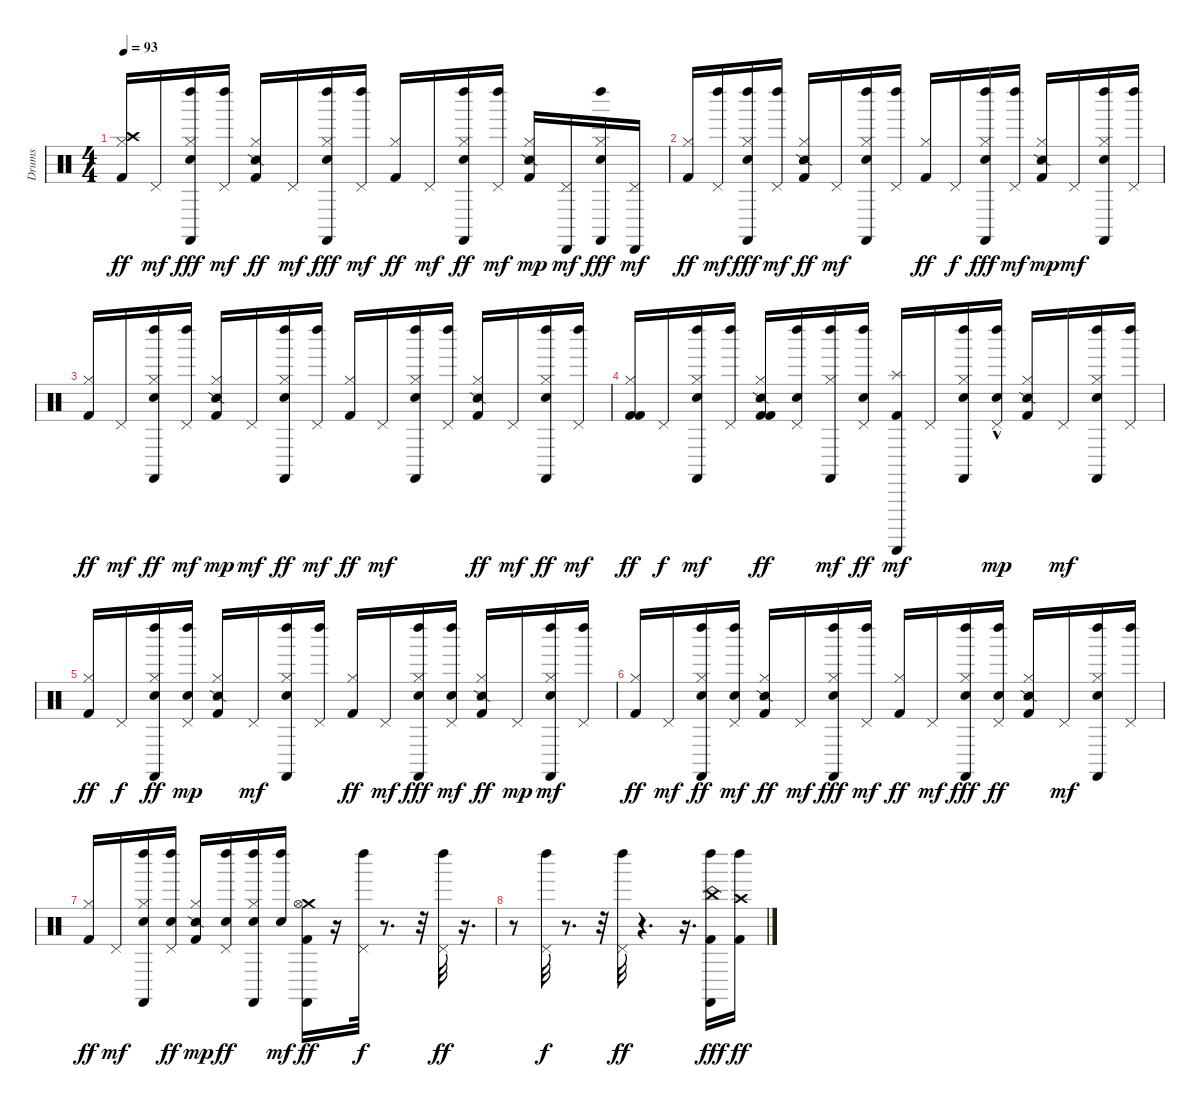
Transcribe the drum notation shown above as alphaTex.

\track ("Drums" "Drums") {instrument percussion}
\staff {score}
\articulation defaults
\ts (4 4)
\tempo 93
\clef neutral
\ks c
("Crash high (hit)" "Hi-Hat (closed)" "Kick (hit) 2").16{dy ff} "Pedal Hi-Hat (hit)".16{dy mf} ("Left Maraca (hit)" "Hi-Hat (closed)" "Snare (hit) 2" "Castanets (hit)").16{dy fff} ("Pedal Hi-Hat (hit)" "Left Maraca (hit)").16{dy mf} ("Hi-Hat (closed)" "Snare (side stick) 2" "Kick (hit) 2").16{dy ff} "Pedal Hi-Hat (hit)".16{dy mf} ("Snare (hit) 2" "Hi-Hat (closed)" "Left Maraca (hit)" "Castanets (hit)").16{dy fff} ("Left Maraca (hit)" "Pedal Hi-Hat (hit)").16{dy mf} ("Kick (hit) 2" "Hi-Hat (closed)").16{dy ff} "Pedal Hi-Hat (hit)".16{dy mf} ("Snare (hit) 2" "Left Maraca (hit)" "Castanets (hit)" "Hi-Hat (closed)").16{dy ff} ("Pedal Hi-Hat (hit)" "Left Maraca (hit)").16{dy mf} ("Kick (hit) 2" "Hi-Hat (closed)" "Snare (side stick) 2").16{dy mp} ("Pedal Hi-Hat (hit)" "Cabasa (hit)").16{dy mf} ("Hi-Hat (closed)" "Snare (hit) 2" "Left Maraca (hit)" "Castanets (hit)").16{dy fff} ("Cabasa (hit)" "Pedal Hi-Hat (hit)").16{dy mf} |
("Hi-Hat (closed)" "Kick (hit) 2").16{dy ff} ("Pedal Hi-Hat (hit)" "Left Maraca (hit)").16{dy mf} ("Left Maraca (hit)" "Hi-Hat (closed)" "Snare (hit) 2" "Castanets (hit)").16{dy fff} ("Pedal Hi-Hat (hit)" "Left Maraca (hit)").16{dy mf} ("Kick (hit) 2" "Snare (side stick) 2" "Hi-Hat (closed)").16{dy ff} "Pedal Hi-Hat (hit)".16{dy mf} ("Castanets (hit)" "Snare (hit) 2" "Hi-Hat (closed)" "Left Maraca (hit)").16 ("Pedal Hi-Hat (hit)" "Left Maraca (hit)").16 ("Kick (hit) 2" "Hi-Hat (closed)").16{dy ff} "Pedal Hi-Hat (hit)".16{dy f} ("Snare (hit) 2" "Left Maraca (hit)" "Hi-Hat (closed)" "Castanets (hit)").16{dy fff} ("Left Maraca (hit)" "Pedal Hi-Hat (hit)").16{dy mf} ("Kick (hit) 2" "Snare (side stick) 2" "Hi-Hat (closed)").16{dy mp} "Pedal Hi-Hat (hit)".16{dy mf} ("Castanets (hit)" "Snare (hit) 2" "Left Maraca (hit)" "Hi-Hat (closed)").16 ("Pedal Hi-Hat (hit)" "Left Maraca (hit)").16 |
("Hi-Hat (closed)" "Kick (hit) 2").16{dy ff} "Pedal Hi-Hat (hit)".16{dy mf} ("Hi-Hat (closed)" "Castanets (hit)" "Left Maraca (hit)" "Snare (hit) 2").16{dy ff} ("Pedal Hi-Hat (hit)" "Left Maraca (hit)").16{dy mf} ("Kick (hit) 2" "Snare (side stick) 2" "Hi-Hat (closed)").16{dy mp} "Pedal Hi-Hat (hit)".16{dy mf} ("Hi-Hat (closed)" "Left Maraca (hit)" "Castanets (hit)" "Snare (hit) 2").16{dy ff} ("Pedal Hi-Hat (hit)" "Left Maraca (hit)").16{dy mf} ("Kick (hit) 2" "Hi-Hat (closed)").16{dy ff} "Pedal Hi-Hat (hit)".16{dy mf} ("Hi-Hat (closed)" "Castanets (hit)" "Snare (hit) 2" "Left Maraca (hit)").16 ("Pedal Hi-Hat (hit)" "Left Maraca (hit)").16 ("Hi-Hat (closed)" "Snare (side stick) 2" "Kick (hit) 2").16{dy ff} "Pedal Hi-Hat (hit)".16{dy mf} ("Castanets (hit)" "Left Maraca (hit)" "Hi-Hat (closed)" "Snare (hit) 2").16{dy ff} ("Pedal Hi-Hat (hit)" "Left Maraca (hit)").16{dy mf} |
("Kick (hit) 2" "Hi-Hat (closed)" "Kick (hit) 2").16{dy ff} "Pedal Hi-Hat (hit)".16{dy f} ("Castanets (hit)" "Hi-Hat (closed)" "Snare (hit) 2" "Left Maraca (hit)").16{dy mf} ("Left Maraca (hit)" "Pedal Hi-Hat (hit)").16 ("Snare (side stick) 2" "Kick (hit) 2" "Hi-Hat (closed)" "Kick (hit) 2").16{dy ff} ("Left Maraca (hit)" "Snare (hit) 2" "Pedal Hi-Hat (hit)").16 ("Left Maraca (hit)" "Castanets (hit)" "Hi-Hat (closed)").16{dy mf} ("Snare (hit) 2" "Left Maraca (hit)" "Pedal Hi-Hat (hit)").16{dy ff} ("Splash (hit)" "Kick (hit) 2" "Guiro (scrap-return)").16{dy mf} "Pedal Hi-Hat (hit)".16 ("Castanets (hit)" "Hi-Hat (closed)" "Snare (hit) 2" "Left Maraca (hit)").16 ("Left Maraca (hit)" "Snare (hit) 2"{hac} "Pedal Hi-Hat (hit)").16{dy mp} ("Kick (hit) 2" "Snare (side stick) 2" "Hi-Hat (closed)").16 "Pedal Hi-Hat (hit)".16{dy mf} ("Snare (hit) 2" "Castanets (hit)" "Hi-Hat (closed)" "Left Maraca (hit)").16 ("Pedal Hi-Hat (hit)" "Left Maraca (hit)").16 |
("Kick (hit) 2" "Hi-Hat (closed)").16{dy ff} "Pedal Hi-Hat (hit)".16{dy f} ("Left Maraca (hit)" "Snare (hit) 2" "Castanets (hit)" "Hi-Hat (closed)").16{dy ff} ("Snare (hit) 2" "Left Maraca (hit)" "Pedal Hi-Hat (hit)").16{dy mp} ("Hi-Hat (closed)" "Kick (hit) 2" "Snare (side stick) 2").16 "Pedal Hi-Hat (hit)".16{dy mf} ("Snare (hit) 2" "Castanets (hit)" "Hi-Hat (closed)" "Left Maraca (hit)").16 ("Left Maraca (hit)" "Pedal Hi-Hat (hit)").16 ("Hi-Hat (closed)" "Kick (hit) 2").16{dy ff} "Pedal Hi-Hat (hit)".16{dy mf} ("Snare (hit) 2" "Left Maraca (hit)" "Hi-Hat (closed)" "Castanets (hit)").16{dy fff} ("Snare (hit) 2" "Left Maraca (hit)" "Pedal Hi-Hat (hit)").16{dy mf} ("Snare (side stick) 2" "Hi-Hat (closed)" "Kick (hit) 2").16{dy ff} "Pedal Hi-Hat (hit)".16{dy mp} ("Castanets (hit)" "Snare (hit) 2" "Hi-Hat (closed)" "Left Maraca (hit)").16{dy mf} ("Pedal Hi-Hat (hit)" "Left Maraca (hit)").16 |
("Hi-Hat (closed)" "Kick (hit) 2").16{dy ff} "Pedal Hi-Hat (hit)".16{dy mf} ("Castanets (hit)" "Left Maraca (hit)" "Snare (hit) 2" "Hi-Hat (closed)").16{dy ff} ("Pedal Hi-Hat (hit)" "Snare (hit) 2" "Left Maraca (hit)").16{dy mf} ("Hi-Hat (closed)" "Snare (side stick) 2" "Kick (hit) 2").16{dy ff} "Pedal Hi-Hat (hit)".16{dy mf} ("Hi-Hat (closed)" "Snare (hit) 2" "Left Maraca (hit)" "Castanets (hit)").16{dy fff} ("Left Maraca (hit)" "Pedal Hi-Hat (hit)").16{dy mf} ("Kick (hit) 2" "Hi-Hat (closed)").16{dy ff} "Pedal Hi-Hat (hit)".16{dy mf} ("Left Maraca (hit)" "Hi-Hat (closed)" "Snare (hit) 2" "Castanets (hit)").16{dy fff} ("Pedal Hi-Hat (hit)" "Left Maraca (hit)" "Snare (hit) 2").16{dy ff} ("Kick (hit) 2" "Snare (side stick) 2" "Hi-Hat (closed)").16 "Pedal Hi-Hat (hit)".16{dy mf} ("Snare (hit) 2" "Castanets (hit)" "Hi-Hat (closed)" "Left Maraca (hit)").16 ("Pedal Hi-Hat (hit)" "Left Maraca (hit)").16 |
("Kick (hit) 2" "Hi-Hat (closed)").16{dy ff} "Pedal Hi-Hat (hit)".16{dy mf} ("Snare (hit) 2" "Hi-Hat (closed)" "Castanets (hit)" "Left Maraca (hit)").16 ("Left Maraca (hit)" "Snare (hit) 2" "Pedal Hi-Hat (hit)").16{dy ff} ("Kick (hit) 2" "Hi-Hat (closed)" "Snare (side stick) 2").16{dy mp} ("Left Maraca (hit)" "Pedal Hi-Hat (hit)" "Snare (hit) 2").16{dy ff} ("Castanets (hit)" "Snare (hit) 2" "Left Maraca (hit)" "Hi-Hat (closed)").16 ("Snare (hit) 2" "Left Maraca (hit)").16{dy mf} ("Crash medium (hit)" "Hi-Hat (open)" "Castanets (hit)" "Kick (hit) 2").16{dy ff} r.16 ("Left Maraca (hit)" "Pedal Hi-Hat (hit)").32{dy f} r.8{d} r.32 ("Pedal Hi-Hat (hit)" "Left Maraca (hit)").32{dy ff} r.16{d} |
r.8 ("Left Maraca (hit)" "Pedal Hi-Hat (hit)").32{dy f} r.8{d} r.32 ("Left Maraca (hit)" "Pedal Hi-Hat (hit)").32{dy ff} r.4{d} r.16{d} ("Kick (hit) 2" "China (hit)" "Left Maraca (hit)" "Castanets (hit)").16{dy fff} ("Left Maraca (hit)" "Crash high (hit)" "Kick (hit) 2").16{dy ff}
